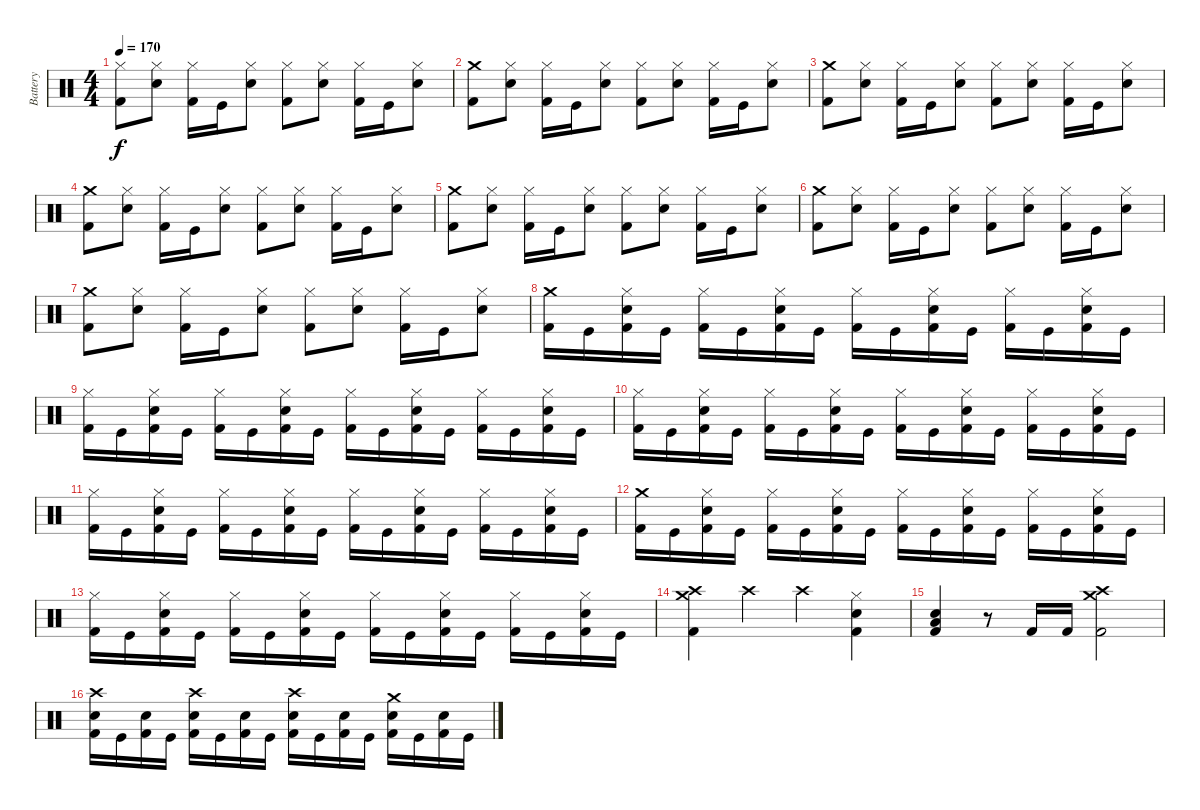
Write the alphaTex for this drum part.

\track ("Battery" "Battery") {instrument percussion}
\staff {score}
\articulation defaults
\ts (4 4)
\tempo 170
\clef neutral
\ks c
("Hi-Hat (closed)" "Kick (hit) 2").8{dy f} ("Hi-Hat (closed)" "Snare (hit) 2").8 ("Hi-Hat (closed)" "Kick (hit) 2").16 "Kick (hit)".16 ("Hi-Hat (closed)" "Snare (hit) 2").8 ("Hi-Hat (closed)" "Kick (hit) 2").8 ("Hi-Hat (closed)" "Snare (hit) 2").8 ("Hi-Hat (closed)" "Kick (hit) 2").16 "Kick (hit)".16 ("Hi-Hat (closed)" "Snare (hit) 2").8 |
("Crash medium (hit)" "Kick (hit) 2").8 ("Hi-Hat (closed)" "Snare (hit) 2").8 ("Hi-Hat (closed)" "Kick (hit) 2").16 "Kick (hit)".16 ("Hi-Hat (closed)" "Snare (hit) 2").8 ("Hi-Hat (closed)" "Kick (hit) 2").8 ("Hi-Hat (closed)" "Snare (hit) 2").8 ("Hi-Hat (closed)" "Kick (hit) 2").16 "Kick (hit)".16 ("Hi-Hat (closed)" "Snare (hit) 2").8 |
("Crash medium (hit)" "Kick (hit) 2").8 ("Hi-Hat (closed)" "Snare (hit) 2").8 ("Hi-Hat (closed)" "Kick (hit) 2").16 "Kick (hit)".16 ("Hi-Hat (closed)" "Snare (hit) 2").8 ("Hi-Hat (closed)" "Kick (hit) 2").8 ("Hi-Hat (closed)" "Snare (hit) 2").8 ("Hi-Hat (closed)" "Kick (hit) 2").16 "Kick (hit)".16 ("Hi-Hat (closed)" "Snare (hit) 2").8 |
("Crash medium (hit)" "Kick (hit) 2").8 ("Hi-Hat (closed)" "Snare (hit) 2").8 ("Hi-Hat (closed)" "Kick (hit) 2").16 "Kick (hit)".16 ("Hi-Hat (closed)" "Snare (hit) 2").8 ("Hi-Hat (closed)" "Kick (hit) 2").8 ("Hi-Hat (closed)" "Snare (hit) 2").8 ("Hi-Hat (closed)" "Kick (hit) 2").16 "Kick (hit)".16 ("Hi-Hat (closed)" "Snare (hit) 2").8 |
("Crash medium (hit)" "Kick (hit) 2").8 ("Hi-Hat (closed)" "Snare (hit) 2").8 ("Hi-Hat (closed)" "Kick (hit) 2").16 "Kick (hit)".16 ("Hi-Hat (closed)" "Snare (hit) 2").8 ("Hi-Hat (closed)" "Kick (hit) 2").8 ("Hi-Hat (closed)" "Snare (hit) 2").8 ("Hi-Hat (closed)" "Kick (hit) 2").16 "Kick (hit)".16 ("Hi-Hat (closed)" "Snare (hit) 2").8 |
("Crash medium (hit)" "Kick (hit) 2").8 ("Hi-Hat (closed)" "Snare (hit) 2").8 ("Hi-Hat (closed)" "Kick (hit) 2").16 "Kick (hit)".16 ("Hi-Hat (closed)" "Snare (hit) 2").8 ("Hi-Hat (closed)" "Kick (hit) 2").8 ("Hi-Hat (closed)" "Snare (hit) 2").8 ("Hi-Hat (closed)" "Kick (hit) 2").16 "Kick (hit)".16 ("Hi-Hat (closed)" "Snare (hit) 2").8 |
("Crash medium (hit)" "Kick (hit) 2").8 ("Hi-Hat (closed)" "Snare (hit) 2").8 ("Hi-Hat (closed)" "Kick (hit) 2").16 "Kick (hit)".16 ("Hi-Hat (closed)" "Snare (hit) 2").8 ("Hi-Hat (closed)" "Kick (hit) 2").8 ("Hi-Hat (closed)" "Snare (hit) 2").8 ("Hi-Hat (closed)" "Kick (hit) 2").16 "Kick (hit)".16 ("Hi-Hat (closed)" "Snare (hit) 2").8 |
("Crash medium (hit)" "Kick (hit) 2").16 "Kick (hit)".16 ("Hi-Hat (closed)" "Snare (hit) 2" "Kick (hit) 2").16 "Kick (hit)".16 ("Hi-Hat (closed)" "Kick (hit) 2").16 "Kick (hit)".16 ("Hi-Hat (closed)" "Snare (hit) 2" "Kick (hit) 2").16 "Kick (hit)".16 ("Hi-Hat (closed)" "Kick (hit) 2").16 "Kick (hit)".16 ("Hi-Hat (closed)" "Snare (hit) 2" "Kick (hit) 2").16 "Kick (hit)".16 ("Hi-Hat (closed)" "Kick (hit) 2").16 "Kick (hit)".16 ("Hi-Hat (closed)" "Snare (hit) 2" "Kick (hit) 2").16 "Kick (hit)".16 |
("Hi-Hat (closed)" "Kick (hit) 2").16 "Kick (hit)".16 ("Hi-Hat (closed)" "Snare (hit) 2" "Kick (hit) 2").16 "Kick (hit)".16 ("Hi-Hat (closed)" "Kick (hit) 2").16 "Kick (hit)".16 ("Hi-Hat (closed)" "Snare (hit) 2" "Kick (hit) 2").16 "Kick (hit)".16 ("Hi-Hat (closed)" "Kick (hit) 2").16 "Kick (hit)".16 ("Hi-Hat (closed)" "Snare (hit) 2" "Kick (hit) 2").16 "Kick (hit)".16 ("Hi-Hat (closed)" "Kick (hit) 2").16 "Kick (hit)".16 ("Hi-Hat (closed)" "Snare (hit) 2" "Kick (hit) 2").16 "Kick (hit)".16 |
("Hi-Hat (closed)" "Kick (hit) 2").16 "Kick (hit)".16 ("Hi-Hat (closed)" "Snare (hit) 2" "Kick (hit) 2").16 "Kick (hit)".16 ("Hi-Hat (closed)" "Kick (hit) 2").16 "Kick (hit)".16 ("Hi-Hat (closed)" "Snare (hit) 2" "Kick (hit) 2").16 "Kick (hit)".16 ("Hi-Hat (closed)" "Kick (hit) 2").16 "Kick (hit)".16 ("Hi-Hat (closed)" "Snare (hit) 2" "Kick (hit) 2").16 "Kick (hit)".16 ("Hi-Hat (closed)" "Kick (hit) 2").16 "Kick (hit)".16 ("Hi-Hat (closed)" "Snare (hit) 2" "Kick (hit) 2").16 "Kick (hit)".16 |
("Hi-Hat (closed)" "Kick (hit) 2").16 "Kick (hit)".16 ("Hi-Hat (closed)" "Snare (hit) 2" "Kick (hit) 2").16 "Kick (hit)".16 ("Hi-Hat (closed)" "Kick (hit) 2").16 "Kick (hit)".16 ("Hi-Hat (closed)" "Snare (hit) 2" "Kick (hit) 2").16 "Kick (hit)".16 ("Hi-Hat (closed)" "Kick (hit) 2").16 "Kick (hit)".16 ("Hi-Hat (closed)" "Snare (hit) 2" "Kick (hit) 2").16 "Kick (hit)".16 ("Hi-Hat (closed)" "Kick (hit) 2").16 "Kick (hit)".16 ("Hi-Hat (closed)" "Snare (hit) 2" "Kick (hit) 2").16 "Kick (hit)".16 |
("Crash medium (hit)" "Kick (hit) 2").16 "Kick (hit)".16 ("Hi-Hat (closed)" "Snare (hit) 2" "Kick (hit) 2").16 "Kick (hit)".16 ("Hi-Hat (closed)" "Kick (hit) 2").16 "Kick (hit)".16 ("Hi-Hat (closed)" "Snare (hit) 2" "Kick (hit) 2").16 "Kick (hit)".16 ("Hi-Hat (closed)" "Kick (hit) 2").16 "Kick (hit)".16 ("Hi-Hat (closed)" "Snare (hit) 2" "Kick (hit) 2").16 "Kick (hit)".16 ("Hi-Hat (closed)" "Kick (hit) 2").16 "Kick (hit)".16 ("Hi-Hat (closed)" "Snare (hit) 2" "Kick (hit) 2").16 "Kick (hit)".16 |
("Hi-Hat (closed)" "Kick (hit) 2").16 "Kick (hit)".16 ("Hi-Hat (closed)" "Snare (hit) 2" "Kick (hit) 2").16 "Kick (hit)".16 ("Hi-Hat (closed)" "Kick (hit) 2").16 "Kick (hit)".16 ("Hi-Hat (closed)" "Snare (hit) 2" "Kick (hit) 2").16 "Kick (hit)".16 ("Hi-Hat (closed)" "Kick (hit) 2").16 "Kick (hit)".16 ("Hi-Hat (closed)" "Snare (hit) 2" "Kick (hit) 2").16 "Kick (hit)".16 ("Hi-Hat (closed)" "Kick (hit) 2").16 "Kick (hit)".16 ("Hi-Hat (closed)" "Snare (hit) 2" "Kick (hit) 2").16 "Kick (hit)".16 |
("Crash high (hit)" "Crash medium (hit)" "Kick (hit) 2").4 "Crash high (hit)".4 "Crash high (hit)".4 ("Hi-Hat (closed)" "Snare (hit) 2" "Kick (hit) 2").4 |
("Low Floor Tom (hit)" "Snare (hit) 2" "Kick (hit) 2").4 r.8 "Kick (hit) 2".16 "Kick (hit) 2".16 ("Crash high (hit)" "Crash medium (hit)" "Kick (hit) 2").2 |
("Crash high (hit)" "Snare (hit) 2" "Kick (hit) 2").16 "Kick (hit)".16 ("Snare (hit) 2" "Kick (hit) 2").16 "Kick (hit)".16 ("Crash high (hit)" "Snare (hit) 2" "Kick (hit) 2").16 "Kick (hit)".16 ("Snare (hit) 2" "Kick (hit) 2").16 "Kick (hit)".16 ("Crash high (hit)" "Snare (hit) 2" "Kick (hit) 2").16 "Kick (hit)".16 ("Snare (hit) 2" "Kick (hit) 2").16 "Kick (hit)".16 ("Crash medium (hit)" "Snare (hit) 2" "Kick (hit) 2").16 "Kick (hit)".16 ("Snare (hit) 2" "Kick (hit) 2").16 "Kick (hit)".16
